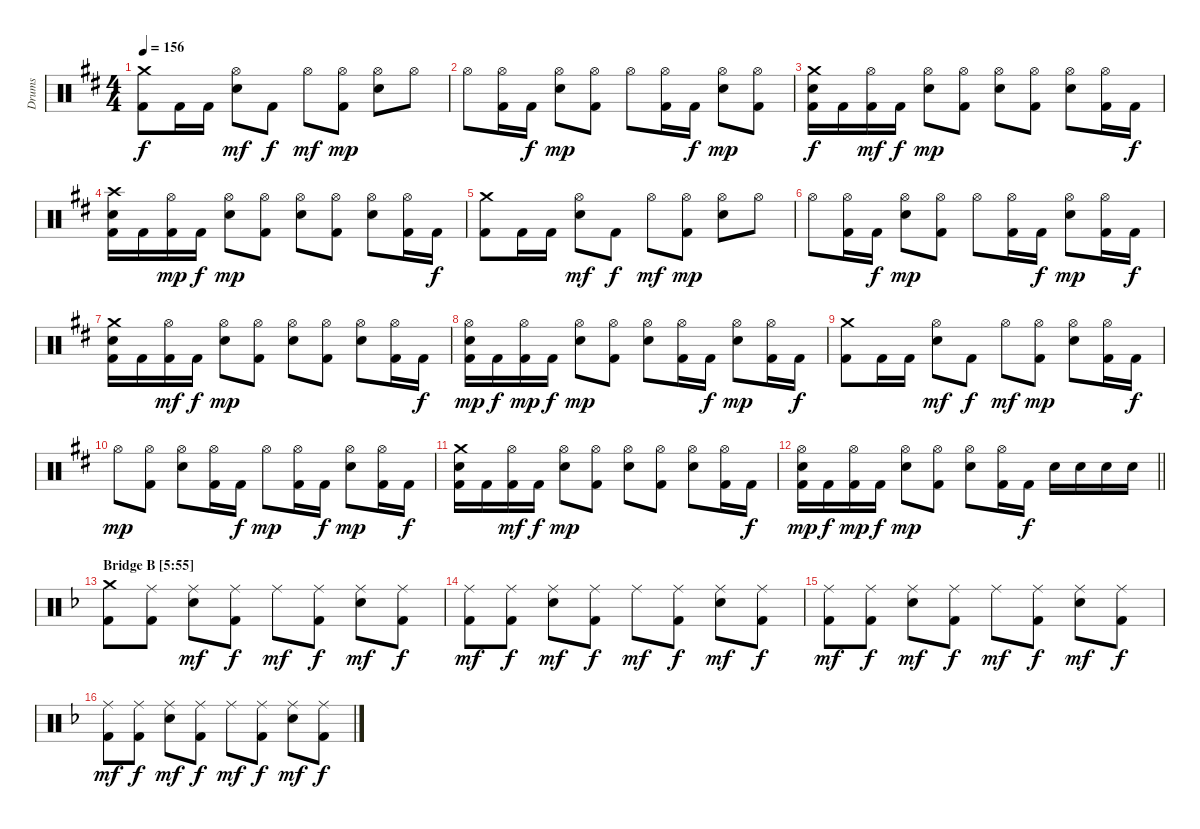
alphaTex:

\track ("Drums" "Drums") {instrument percussion}
\staff {score}
\articulation defaults
\ts (4 4)
\tempo 156
\clef neutral
\ks d
("Crash medium (hit)" "Kick (hit) 2").8{dy f} "Kick (hit) 2".16 "Kick (hit) 2".16 ("Hi-Hat (open)" "Snare (hit) 2").8{dy mf} "Kick (hit) 2".8{dy f} "Hi-Hat (open)".8{dy mf} ("Hi-Hat (open)" "Kick (hit) 2").8{dy mp} ("Hi-Hat (open)" "Snare (hit) 2").8 "Hi-Hat (open)".8 |
"Hi-Hat (open)".8 ("Hi-Hat (open)" "Kick (hit) 2").16 "Kick (hit) 2".16{dy f} ("Hi-Hat (open)" "Snare (hit) 2").8{dy mp} ("Hi-Hat (open)" "Kick (hit) 2").8 "Hi-Hat (open)".8 ("Hi-Hat (open)" "Kick (hit) 2").16 "Kick (hit) 2".16{dy f} ("Hi-Hat (open)" "Snare (hit) 2").8{dy mp} ("Hi-Hat (open)" "Kick (hit) 2").8 |
("Crash medium (hit)" "Snare (hit) 2" "Kick (hit) 2").16{dy f} "Kick (hit) 2".16 ("Hi-Hat (open)" "Kick (hit) 2").16{dy mf} "Kick (hit) 2".16{dy f} ("Hi-Hat (open)" "Snare (hit) 2").8{dy mp} ("Hi-Hat (open)" "Kick (hit) 2").8 ("Hi-Hat (open)" "Snare (hit) 2").8 ("Hi-Hat (open)" "Kick (hit) 2").8 ("Hi-Hat (open)" "Snare (hit) 2").8 ("Hi-Hat (open)" "Kick (hit) 2").16 "Kick (hit) 2".16{dy f} |
("Crash high (hit)" "Snare (hit) 2" "Kick (hit) 2").16 "Kick (hit) 2".16 ("Hi-Hat (open)" "Kick (hit) 2").16{dy mp} "Kick (hit) 2".16{dy f} ("Hi-Hat (open)" "Snare (hit) 2").8{dy mp} ("Hi-Hat (open)" "Kick (hit) 2").8 ("Hi-Hat (open)" "Snare (hit) 2").8 ("Hi-Hat (open)" "Kick (hit) 2").8 ("Hi-Hat (open)" "Snare (hit) 2").8 ("Hi-Hat (open)" "Kick (hit) 2").16 "Kick (hit) 2".16{dy f} |
("Crash medium (hit)" "Kick (hit) 2").8 "Kick (hit) 2".16 "Kick (hit) 2".16 ("Hi-Hat (open)" "Snare (hit) 2").8{dy mf} "Kick (hit) 2".8{dy f} "Hi-Hat (open)".8{dy mf} ("Hi-Hat (open)" "Kick (hit) 2").8{dy mp} ("Hi-Hat (open)" "Snare (hit) 2").8 "Hi-Hat (open)".8 |
"Hi-Hat (open)".8 ("Hi-Hat (open)" "Kick (hit) 2").16 "Kick (hit) 2".16{dy f} ("Hi-Hat (open)" "Snare (hit) 2").8{dy mp} ("Hi-Hat (open)" "Kick (hit) 2").8 "Hi-Hat (open)".8 ("Hi-Hat (open)" "Kick (hit) 2").16 "Kick (hit) 2".16{dy f} ("Hi-Hat (open)" "Snare (hit) 2").8{dy mp} ("Hi-Hat (open)" "Kick (hit) 2").16 "Kick (hit) 2".16{dy f} |
("Crash medium (hit)" "Snare (hit) 2" "Kick (hit) 2").16 "Kick (hit) 2".16 ("Hi-Hat (open)" "Kick (hit) 2").16{dy mf} "Kick (hit) 2".16{dy f} ("Hi-Hat (open)" "Snare (hit) 2").8{dy mp} ("Hi-Hat (open)" "Kick (hit) 2").8 ("Hi-Hat (open)" "Snare (hit) 2").8 ("Hi-Hat (open)" "Kick (hit) 2").8 ("Hi-Hat (open)" "Snare (hit) 2").8 ("Hi-Hat (open)" "Kick (hit) 2").16 "Kick (hit) 2".16{dy f} |
("Hi-Hat (open)" "Snare (hit) 2" "Kick (hit) 2").16{dy mp} "Kick (hit) 2".16{dy f} ("Hi-Hat (open)" "Kick (hit) 2").16{dy mp} "Kick (hit) 2".16{dy f} ("Hi-Hat (open)" "Snare (hit) 2").8{dy mp} ("Hi-Hat (open)" "Kick (hit) 2").8 ("Hi-Hat (open)" "Snare (hit) 2").8 ("Hi-Hat (open)" "Kick (hit) 2").16 "Kick (hit) 2".16{dy f} ("Hi-Hat (open)" "Snare (hit) 2").8{dy mp} ("Hi-Hat (open)" "Kick (hit) 2").16 "Kick (hit) 2".16{dy f} |
("Crash medium (hit)" "Kick (hit) 2").8 "Kick (hit) 2".16 "Kick (hit) 2".16 ("Hi-Hat (open)" "Snare (hit) 2").8{dy mf} "Kick (hit) 2".8{dy f} "Hi-Hat (open)".8{dy mf} ("Hi-Hat (open)" "Kick (hit) 2").8{dy mp} ("Hi-Hat (open)" "Snare (hit) 2").8 ("Hi-Hat (open)" "Kick (hit) 2").16 "Kick (hit) 2".16{dy f} |
"Hi-Hat (open)".8{dy mp} ("Hi-Hat (open)" "Kick (hit) 2").8 ("Hi-Hat (open)" "Snare (hit) 2").8 ("Hi-Hat (open)" "Kick (hit) 2").16 "Kick (hit) 2".16{dy f} "Hi-Hat (open)".8{dy mp} ("Hi-Hat (open)" "Kick (hit) 2").16 "Kick (hit) 2".16{dy f} ("Hi-Hat (open)" "Snare (hit) 2").8{dy mp} ("Hi-Hat (open)" "Kick (hit) 2").16 "Kick (hit) 2".16{dy f} |
("Crash medium (hit)" "Snare (hit) 2" "Kick (hit) 2").16 "Kick (hit) 2".16 ("Hi-Hat (open)" "Kick (hit) 2").16{dy mf} "Kick (hit) 2".16{dy f} ("Hi-Hat (open)" "Snare (hit) 2").8{dy mp} ("Hi-Hat (open)" "Kick (hit) 2").8 ("Hi-Hat (open)" "Snare (hit) 2").8 ("Hi-Hat (open)" "Kick (hit) 2").8 ("Hi-Hat (open)" "Snare (hit) 2").8 ("Hi-Hat (open)" "Kick (hit) 2").16 "Kick (hit) 2".16{dy f} |
\barLineRight lightlight
("Hi-Hat (open)" "Snare (hit) 2" "Kick (hit) 2").16{dy mp} "Kick (hit) 2".16{dy f} ("Hi-Hat (open)" "Kick (hit) 2").16{dy mp} "Kick (hit) 2".16{dy f} ("Hi-Hat (open)" "Snare (hit) 2").8{dy mp} ("Hi-Hat (open)" "Kick (hit) 2").8 ("Hi-Hat (open)" "Snare (hit) 2").8 ("Hi-Hat (open)" "Kick (hit) 2").16 "Kick (hit) 2".16{dy f} "Snare (hit) 2".16 "Snare (hit) 2".16 "Snare (hit) 2".16 "Snare (hit) 2".16 |
\section ("" "Bridge B [5:55]")
\ks dminor
("Crash medium (hit)" "Kick (hit) 2").8 ("Ride (middle)" "Kick (hit) 2").8 ("Ride (middle)" "Snare (hit) 2").8{dy mf} ("Ride (middle)" "Kick (hit) 2").8{dy f} "Ride (middle)".8{dy mf} ("Ride (middle)" "Kick (hit) 2").8{dy f} ("Ride (middle)" "Snare (hit) 2").8{dy mf} ("Ride (middle)" "Kick (hit) 2").8{dy f} |
("Ride (middle)" "Kick (hit) 2").8{dy mf} ("Ride (middle)" "Kick (hit) 2").8{dy f} ("Ride (middle)" "Snare (hit) 2").8{dy mf} ("Ride (middle)" "Kick (hit) 2").8{dy f} "Ride (middle)".8{dy mf} ("Ride (middle)" "Kick (hit) 2").8{dy f} ("Ride (middle)" "Snare (hit) 2").8{dy mf} ("Ride (middle)" "Kick (hit) 2").8{dy f} |
("Ride (middle)" "Kick (hit) 2").8{dy mf} ("Ride (middle)" "Kick (hit) 2").8{dy f} ("Ride (middle)" "Snare (hit) 2").8{dy mf} ("Ride (middle)" "Kick (hit) 2").8{dy f} "Ride (middle)".8{dy mf} ("Ride (middle)" "Kick (hit) 2").8{dy f} ("Ride (middle)" "Snare (hit) 2").8{dy mf} ("Ride (middle)" "Kick (hit) 2").8{dy f} |
("Ride (middle)" "Kick (hit) 2").8{dy mf} ("Ride (middle)" "Kick (hit) 2").8{dy f} ("Ride (middle)" "Snare (hit) 2").8{dy mf} ("Ride (middle)" "Kick (hit) 2").8{dy f} "Ride (middle)".8{dy mf} ("Ride (middle)" "Kick (hit) 2").8{dy f} ("Ride (middle)" "Snare (hit) 2").8{dy mf} ("Ride (middle)" "Kick (hit) 2").8{dy f}
